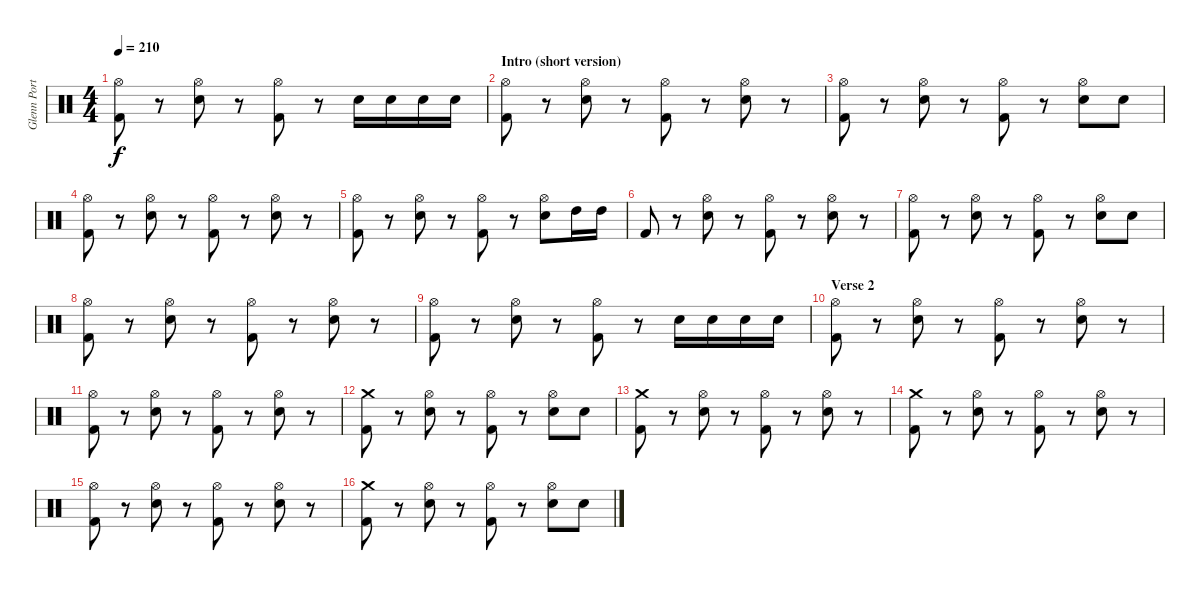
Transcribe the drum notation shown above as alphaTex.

\track ("Glenn Porter - Drums" "Glenn Port") {instrument percussion}
\staff {score}
\articulation defaults
\ts (4 4)
\tempo 210
\clef neutral
\ks c
("Hi-Hat (open)" "Kick (hit) 2").8{dy f} r.8 ("Hi-Hat (open)" "Electric Snare (hit)").8 r.8 ("Hi-Hat (open)" "Kick (hit) 2").8 r.8 "Electric Snare (hit)".16 "Electric Snare (hit)".16 "Electric Snare (hit)".16 "Electric Snare (hit)".16 |
\section ("" "Intro (short version)")
("Hi-Hat (open)" "Kick (hit) 2").8 r.8 ("Hi-Hat (open)" "Electric Snare (hit)").8 r.8 ("Hi-Hat (open)" "Kick (hit) 2").8 r.8 ("Hi-Hat (open)" "Electric Snare (hit)").8 r.8 |
("Hi-Hat (open)" "Kick (hit) 2").8 r.8 ("Hi-Hat (open)" "Electric Snare (hit)").8 r.8 ("Hi-Hat (open)" "Kick (hit) 2").8 r.8 ("Hi-Hat (open)" "Electric Snare (hit)").8 "Electric Snare (hit)".8 |
("Hi-Hat (open)" "Kick (hit) 2").8 r.8 ("Hi-Hat (open)" "Electric Snare (hit)").8 r.8 ("Hi-Hat (open)" "Kick (hit) 2").8 r.8 ("Hi-Hat (open)" "Electric Snare (hit)").8 r.8 |
("Hi-Hat (open)" "Kick (hit) 2").8 r.8 ("Hi-Hat (open)" "Electric Snare (hit)").8 r.8 ("Hi-Hat (open)" "Kick (hit) 2").8 r.8 ("Hi-Hat (open)" "Electric Snare (hit)").8 "High Tom (hit)".16 "High Tom (hit)".16 |
"Kick (hit) 2".8 r.8 ("Hi-Hat (open)" "Electric Snare (hit)").8 r.8 ("Hi-Hat (open)" "Kick (hit) 2").8 r.8 ("Hi-Hat (open)" "Electric Snare (hit)").8 r.8 |
("Hi-Hat (open)" "Kick (hit) 2").8 r.8 ("Hi-Hat (open)" "Electric Snare (hit)").8 r.8 ("Hi-Hat (open)" "Kick (hit) 2").8 r.8 ("Hi-Hat (open)" "Electric Snare (hit)").8 "Electric Snare (hit)".8 |
("Hi-Hat (open)" "Kick (hit) 2").8 r.8 ("Hi-Hat (open)" "Electric Snare (hit)").8 r.8 ("Hi-Hat (open)" "Kick (hit) 2").8 r.8 ("Hi-Hat (open)" "Electric Snare (hit)").8 r.8 |
("Hi-Hat (open)" "Kick (hit) 2").8 r.8 ("Hi-Hat (open)" "Electric Snare (hit)").8 r.8 ("Hi-Hat (open)" "Kick (hit) 2").8 r.8 "Electric Snare (hit)".16 "Electric Snare (hit)".16 "Electric Snare (hit)".16 "Electric Snare (hit)".16 |
\section ("" "Verse 2")
("Hi-Hat (open)" "Kick (hit) 2").8 r.8 ("Hi-Hat (open)" "Electric Snare (hit)").8 r.8 ("Hi-Hat (open)" "Kick (hit) 2").8 r.8 ("Hi-Hat (open)" "Electric Snare (hit)").8 r.8 |
("Hi-Hat (open)" "Kick (hit) 2").8 r.8 ("Hi-Hat (open)" "Electric Snare (hit)").8 r.8 ("Hi-Hat (open)" "Kick (hit) 2").8 r.8 ("Hi-Hat (open)" "Electric Snare (hit)").8 r.8 |
("Crash medium (hit)" "Kick (hit) 2").8 r.8 ("Hi-Hat (open)" "Electric Snare (hit)").8 r.8 ("Hi-Hat (open)" "Kick (hit) 2").8 r.8 ("Hi-Hat (open)" "Electric Snare (hit)").8 "Electric Snare (hit)".8 |
("Crash medium (hit)" "Kick (hit) 2").8 r.8 ("Hi-Hat (open)" "Electric Snare (hit)").8 r.8 ("Hi-Hat (open)" "Kick (hit) 2").8 r.8 ("Hi-Hat (open)" "Electric Snare (hit)").8 r.8 |
("Crash medium (hit)" "Kick (hit) 2").8 r.8 ("Hi-Hat (open)" "Electric Snare (hit)").8 r.8 ("Hi-Hat (open)" "Kick (hit) 2").8 r.8 ("Hi-Hat (open)" "Electric Snare (hit)").8 r.8 |
("Hi-Hat (open)" "Kick (hit) 2").8 r.8 ("Hi-Hat (open)" "Electric Snare (hit)").8 r.8 ("Hi-Hat (open)" "Kick (hit) 2").8 r.8 ("Hi-Hat (open)" "Electric Snare (hit)").8 r.8 |
("Crash medium (hit)" "Kick (hit) 2").8 r.8 ("Hi-Hat (open)" "Electric Snare (hit)").8 r.8 ("Hi-Hat (open)" "Kick (hit) 2").8 r.8 ("Hi-Hat (open)" "Electric Snare (hit)").8 "Electric Snare (hit)".8
